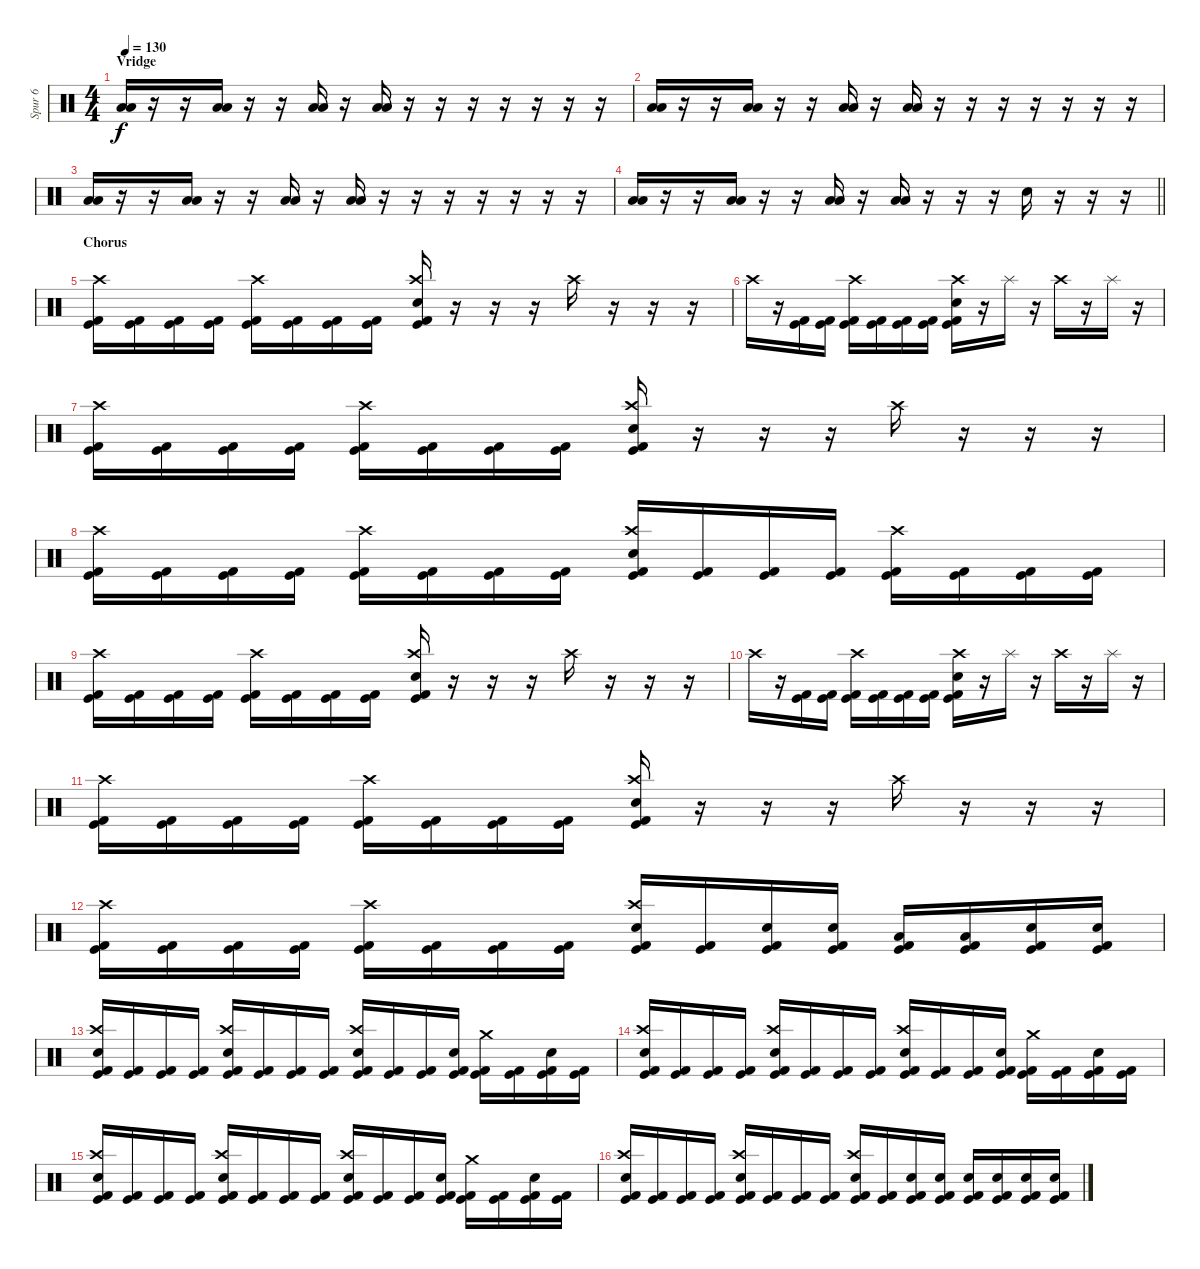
\track ("Spur 6" "Spur 6") {instrument percussion}
\staff {score}
\articulation defaults
\ts (4 4)
\section ("" "Vridge")
\tempo 130
\clef neutral
\ks c
("Low Tom (hit)" "Low Floor Tom (hit)").16{dy f} r.16 r.16 ("Low Tom (hit)" "Low Floor Tom (hit)").16 r.16 r.16 ("Low Tom (hit)" "Low Floor Tom (hit)").16 r.16 ("Low Tom (hit)" "Low Floor Tom (hit)").16 r.16 r.16 r.16 r.16 r.16 r.16 r.16 |
("Low Tom (hit)" "Low Floor Tom (hit)").16 r.16 r.16 ("Low Tom (hit)" "Low Floor Tom (hit)").16 r.16 r.16 ("Low Tom (hit)" "Low Floor Tom (hit)").16 r.16 ("Low Tom (hit)" "Low Floor Tom (hit)").16 r.16 r.16 r.16 r.16 r.16 r.16 r.16 |
("Low Tom (hit)" "Low Floor Tom (hit)").16 r.16 r.16 ("Low Tom (hit)" "Low Floor Tom (hit)").16 r.16 r.16 ("Low Tom (hit)" "Low Floor Tom (hit)").16 r.16 ("Low Tom (hit)" "Low Floor Tom (hit)").16 r.16 r.16 r.16 r.16 r.16 r.16 r.16 |
\barLineRight lightlight
("Low Tom (hit)" "Low Floor Tom (hit)").16 r.16 r.16 ("Low Tom (hit)" "Low Floor Tom (hit)").16 r.16 r.16 ("Low Tom (hit)" "Low Floor Tom (hit)").16 r.16 ("Low Tom (hit)" "Low Floor Tom (hit)").16 r.16 r.16 r.16 "Electric Snare (hit)".16 r.16 r.16 r.16 |
\section ("" "Chorus")
("Crash high (hit)" "Kick (hit)" "Kick (hit) 2").16 ("Kick (hit)" "Kick (hit) 2").16 ("Kick (hit)" "Kick (hit) 2").16 ("Kick (hit)" "Kick (hit) 2").16 ("Crash high (hit)" "Kick (hit)" "Kick (hit) 2").16 ("Kick (hit)" "Kick (hit) 2").16 ("Kick (hit)" "Kick (hit) 2").16 ("Kick (hit)" "Kick (hit) 2").16 ("Crash high (hit)" "Electric Snare (hit)" "Kick (hit)" "Kick (hit) 2").16 r.16 r.16 r.16 "Crash high (hit)".16 r.16 r.16 r.16 |
"Crash high (hit)".16 r.16 ("Kick (hit)" "Kick (hit) 2").16 ("Kick (hit)" "Kick (hit) 2").16 ("Crash high (hit)" "Kick (hit)" "Kick (hit) 2").16 ("Kick (hit)" "Kick (hit) 2").16 ("Kick (hit)" "Kick (hit) 2").16 ("Kick (hit)" "Kick (hit) 2").16 ("Crash high (hit)" "Electric Snare (hit)" "Kick (hit)" "Kick (hit) 2").16 r.16 "Splash (hit)".16 r.16 "Crash high (hit)".16 r.16 "Splash (hit)".16 r.16 |
("Crash high (hit)" "Kick (hit)" "Kick (hit) 2").16 ("Kick (hit)" "Kick (hit) 2").16 ("Kick (hit)" "Kick (hit) 2").16 ("Kick (hit)" "Kick (hit) 2").16 ("Crash high (hit)" "Kick (hit)" "Kick (hit) 2").16 ("Kick (hit)" "Kick (hit) 2").16 ("Kick (hit)" "Kick (hit) 2").16 ("Kick (hit)" "Kick (hit) 2").16 ("Crash high (hit)" "Electric Snare (hit)" "Kick (hit)" "Kick (hit) 2").16 r.16 r.16 r.16 "Crash high (hit)".16 r.16 r.16 r.16 |
("Crash high (hit)" "Kick (hit)" "Kick (hit) 2").16 ("Kick (hit)" "Kick (hit) 2").16 ("Kick (hit)" "Kick (hit) 2").16 ("Kick (hit)" "Kick (hit) 2").16 ("Crash high (hit)" "Kick (hit)" "Kick (hit) 2").16 ("Kick (hit)" "Kick (hit) 2").16 ("Kick (hit)" "Kick (hit) 2").16 ("Kick (hit)" "Kick (hit) 2").16 ("Crash high (hit)" "Electric Snare (hit)" "Kick (hit)" "Kick (hit) 2").16 ("Kick (hit)" "Kick (hit) 2").16 ("Kick (hit)" "Kick (hit) 2").16 ("Kick (hit)" "Kick (hit) 2").16 ("Crash high (hit)" "Kick (hit)" "Kick (hit) 2").16 ("Kick (hit)" "Kick (hit) 2").16 ("Kick (hit)" "Kick (hit) 2").16 ("Kick (hit)" "Kick (hit) 2").16 |
("Crash high (hit)" "Kick (hit)" "Kick (hit) 2").16 ("Kick (hit)" "Kick (hit) 2").16 ("Kick (hit)" "Kick (hit) 2").16 ("Kick (hit)" "Kick (hit) 2").16 ("Crash high (hit)" "Kick (hit)" "Kick (hit) 2").16 ("Kick (hit)" "Kick (hit) 2").16 ("Kick (hit)" "Kick (hit) 2").16 ("Kick (hit)" "Kick (hit) 2").16 ("Crash high (hit)" "Electric Snare (hit)" "Kick (hit)" "Kick (hit) 2").16 r.16 r.16 r.16 "Crash high (hit)".16 r.16 r.16 r.16 |
"Crash high (hit)".16 r.16 ("Kick (hit)" "Kick (hit) 2").16 ("Kick (hit)" "Kick (hit) 2").16 ("Crash high (hit)" "Kick (hit)" "Kick (hit) 2").16 ("Kick (hit)" "Kick (hit) 2").16 ("Kick (hit)" "Kick (hit) 2").16 ("Kick (hit)" "Kick (hit) 2").16 ("Crash high (hit)" "Electric Snare (hit)" "Kick (hit)" "Kick (hit) 2").16 r.16 "Splash (hit)".16 r.16 "Crash high (hit)".16 r.16 "Splash (hit)".16 r.16 |
("Crash high (hit)" "Kick (hit)" "Kick (hit) 2").16 ("Kick (hit)" "Kick (hit) 2").16 ("Kick (hit)" "Kick (hit) 2").16 ("Kick (hit)" "Kick (hit) 2").16 ("Crash high (hit)" "Kick (hit)" "Kick (hit) 2").16 ("Kick (hit)" "Kick (hit) 2").16 ("Kick (hit)" "Kick (hit) 2").16 ("Kick (hit)" "Kick (hit) 2").16 ("Crash high (hit)" "Electric Snare (hit)" "Kick (hit)" "Kick (hit) 2").16 r.16 r.16 r.16 "Crash high (hit)".16 r.16 r.16 r.16 |
("Crash high (hit)" "Kick (hit)" "Kick (hit) 2").16 ("Kick (hit)" "Kick (hit) 2").16 ("Kick (hit)" "Kick (hit) 2").16 ("Kick (hit)" "Kick (hit) 2").16 ("Crash high (hit)" "Kick (hit)" "Kick (hit) 2").16 ("Kick (hit)" "Kick (hit) 2").16 ("Kick (hit)" "Kick (hit) 2").16 ("Kick (hit)" "Kick (hit) 2").16 ("Crash high (hit)" "Electric Snare (hit)" "Kick (hit)" "Kick (hit) 2").16 ("Kick (hit)" "Kick (hit) 2").16 ("Electric Snare (hit)" "Kick (hit)" "Kick (hit) 2").16 ("Electric Snare (hit)" "Kick (hit)" "Kick (hit) 2").16 ("Low Tom (hit)" "Kick (hit)" "Kick (hit) 2").16 ("Low Tom (hit)" "Kick (hit)" "Kick (hit) 2").16 ("Electric Snare (hit)" "Kick (hit)" "Kick (hit) 2").16 ("Electric Snare (hit)" "Kick (hit)" "Kick (hit) 2").16 |
("Crash high (hit)" "Electric Snare (hit)" "Kick (hit)" "Kick (hit) 2").16 ("Kick (hit)" "Kick (hit) 2").16 ("Kick (hit)" "Kick (hit) 2").16 ("Kick (hit)" "Kick (hit) 2").16 ("Crash high (hit)" "Electric Snare (hit)" "Kick (hit)" "Kick (hit) 2").16 ("Kick (hit)" "Kick (hit) 2").16 ("Kick (hit)" "Kick (hit) 2").16 ("Kick (hit)" "Kick (hit) 2").16 ("Crash high (hit)" "Electric Snare (hit)" "Kick (hit)" "Kick (hit) 2").16 ("Kick (hit)" "Kick (hit) 2").16 ("Kick (hit)" "Kick (hit) 2").16 ("Electric Snare (hit)" "Kick (hit)" "Kick (hit) 2").16 ("Crash medium (hit)" "Kick (hit)" "Kick (hit) 2").16 ("Kick (hit)" "Kick (hit) 2").16 ("Electric Snare (hit)" "Kick (hit)" "Kick (hit) 2").16 ("Kick (hit)" "Kick (hit) 2").16 |
("Crash high (hit)" "Electric Snare (hit)" "Kick (hit)" "Kick (hit) 2").16 ("Kick (hit)" "Kick (hit) 2").16 ("Kick (hit)" "Kick (hit) 2").16 ("Kick (hit)" "Kick (hit) 2").16 ("Crash high (hit)" "Electric Snare (hit)" "Kick (hit)" "Kick (hit) 2").16 ("Kick (hit)" "Kick (hit) 2").16 ("Kick (hit)" "Kick (hit) 2").16 ("Kick (hit)" "Kick (hit) 2").16 ("Crash high (hit)" "Electric Snare (hit)" "Kick (hit)" "Kick (hit) 2").16 ("Kick (hit)" "Kick (hit) 2").16 ("Kick (hit)" "Kick (hit) 2").16 ("Electric Snare (hit)" "Kick (hit)" "Kick (hit) 2").16 ("Crash medium (hit)" "Kick (hit)" "Kick (hit) 2").16 ("Kick (hit)" "Kick (hit) 2").16 ("Electric Snare (hit)" "Kick (hit)" "Kick (hit) 2").16 ("Kick (hit)" "Kick (hit) 2").16 |
("Crash high (hit)" "Electric Snare (hit)" "Kick (hit)" "Kick (hit) 2").16 ("Kick (hit)" "Kick (hit) 2").16 ("Kick (hit)" "Kick (hit) 2").16 ("Kick (hit)" "Kick (hit) 2").16 ("Crash high (hit)" "Electric Snare (hit)" "Kick (hit)" "Kick (hit) 2").16 ("Kick (hit)" "Kick (hit) 2").16 ("Kick (hit)" "Kick (hit) 2").16 ("Kick (hit)" "Kick (hit) 2").16 ("Crash high (hit)" "Electric Snare (hit)" "Kick (hit)" "Kick (hit) 2").16 ("Kick (hit)" "Kick (hit) 2").16 ("Kick (hit)" "Kick (hit) 2").16 ("Electric Snare (hit)" "Kick (hit)" "Kick (hit) 2").16 ("Crash medium (hit)" "Kick (hit)" "Kick (hit) 2").16 ("Kick (hit)" "Kick (hit) 2").16 ("Electric Snare (hit)" "Kick (hit)" "Kick (hit) 2").16 ("Kick (hit)" "Kick (hit) 2").16 |
("Crash high (hit)" "Electric Snare (hit)" "Kick (hit)" "Kick (hit) 2").16 ("Kick (hit)" "Kick (hit) 2").16 ("Kick (hit)" "Kick (hit) 2").16 ("Kick (hit)" "Kick (hit) 2").16 ("Crash high (hit)" "Electric Snare (hit)" "Kick (hit)" "Kick (hit) 2").16 ("Kick (hit)" "Kick (hit) 2").16 ("Kick (hit)" "Kick (hit) 2").16 ("Kick (hit)" "Kick (hit) 2").16 ("Crash high (hit)" "Electric Snare (hit)" "Kick (hit)" "Kick (hit) 2").16 ("Kick (hit)" "Kick (hit) 2").16 ("Electric Snare (hit)" "Kick (hit)" "Kick (hit) 2").16 ("Electric Snare (hit)" "Kick (hit)" "Kick (hit) 2").16 ("Electric Snare (hit)" "Kick (hit)" "Kick (hit) 2").16 ("Electric Snare (hit)" "Kick (hit)" "Kick (hit) 2").16 ("Electric Snare (hit)" "Kick (hit)" "Kick (hit) 2").16 ("Electric Snare (hit)" "Kick (hit)" "Kick (hit) 2").16
